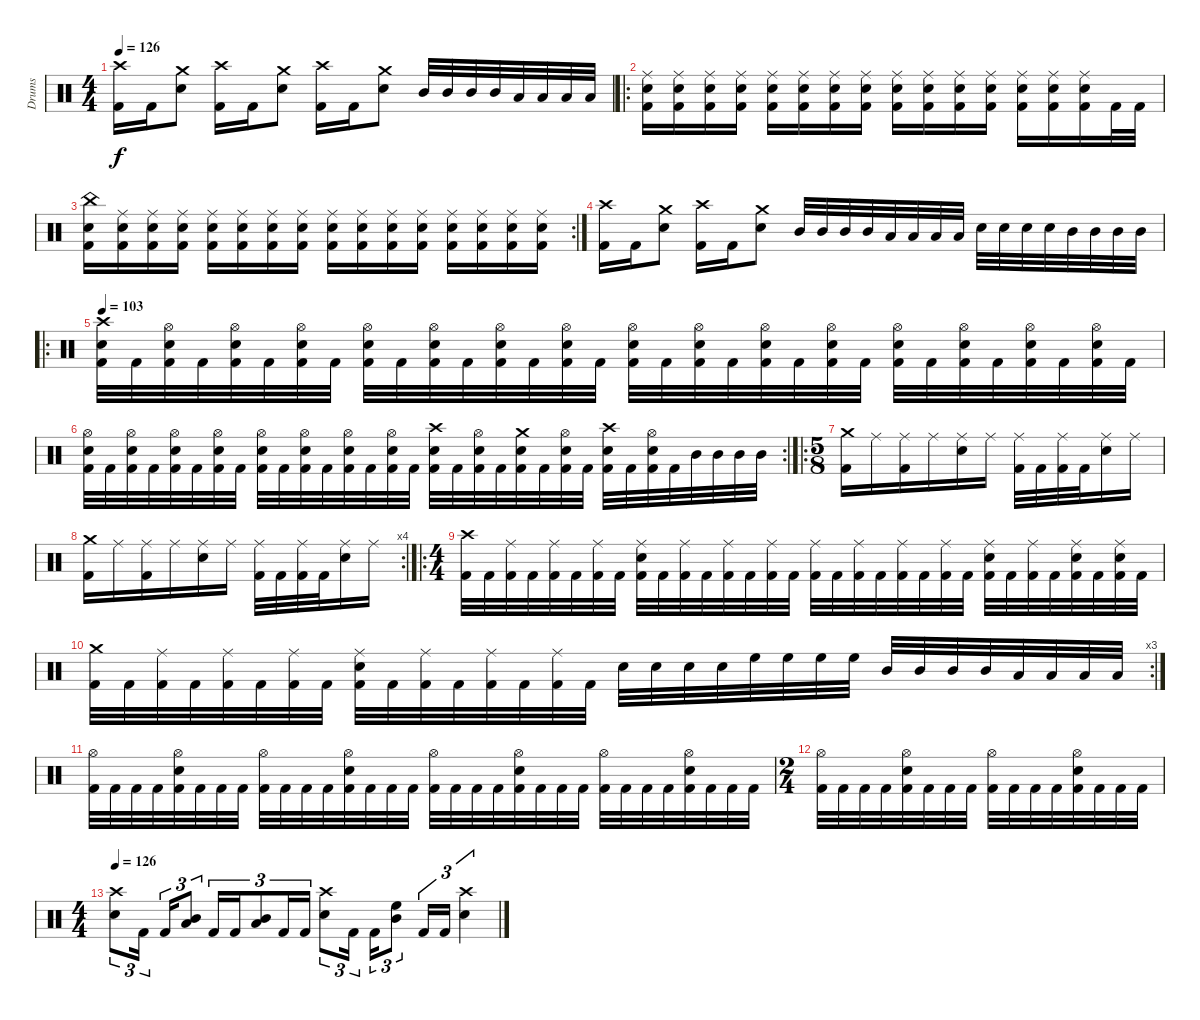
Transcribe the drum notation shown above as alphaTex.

\track ("Drums" "Drums") {instrument percussion}
\staff {score}
\articulation defaults
\ts (4 4)
\tempo 126
\clef neutral
\ks c
("Crash high (hit)" "Kick (hit) 2").16{dy f} "Kick (hit) 2".16 ("Crash medium (hit)" "Electric Snare (hit)").8 ("Crash high (hit)" "Kick (hit) 2").16 "Kick (hit) 2".16 ("Crash medium (hit)" "Electric Snare (hit)").8 ("Crash high (hit)" "Kick (hit) 2").16 "Kick (hit) 2".16 ("Crash medium (hit)" "Electric Snare (hit)").8 "Mid Tom (hit)".32 "Mid Tom (hit)".32 "Mid Tom (hit)".32 "Mid Tom (hit)".32 "Low Tom (hit)".32 "Low Tom (hit)".32 "Low Tom (hit)".32 "Low Tom (hit)".32 |
\ro
("Ride (middle)" "Electric Snare (hit)" "Kick (hit) 2").16 ("Ride (middle)" "Electric Snare (hit)" "Kick (hit) 2").16 ("Ride (middle)" "Electric Snare (hit)" "Kick (hit) 2").16 ("Ride (middle)" "Electric Snare (hit)" "Kick (hit) 2").16 ("Ride (middle)" "Electric Snare (hit)" "Kick (hit) 2").16 ("Ride (middle)" "Electric Snare (hit)" "Kick (hit) 2").16 ("Ride (middle)" "Electric Snare (hit)" "Kick (hit) 2").16 ("Ride (middle)" "Electric Snare (hit)" "Kick (hit) 2").16 ("Ride (middle)" "Electric Snare (hit)" "Kick (hit) 2").16 ("Ride (middle)" "Electric Snare (hit)" "Kick (hit) 2").16 ("Ride (middle)" "Electric Snare (hit)" "Kick (hit) 2").16 ("Ride (middle)" "Electric Snare (hit)" "Kick (hit) 2").16 ("Ride (middle)" "Electric Snare (hit)" "Kick (hit) 2").16 ("Ride (middle)" "Electric Snare (hit)" "Kick (hit) 2").16 ("Ride (middle)" "Electric Snare (hit)" "Kick (hit) 2").16 "Kick (hit) 2".32 "Kick (hit) 2".32 |
\rc 2
("China (hit)" "Electric Snare (hit)" "Kick (hit) 2").16 ("Ride (middle)" "Electric Snare (hit)" "Kick (hit) 2").16 ("Ride (middle)" "Electric Snare (hit)" "Kick (hit) 2").16 ("Ride (middle)" "Electric Snare (hit)" "Kick (hit) 2").16 ("Ride (middle)" "Electric Snare (hit)" "Kick (hit) 2").16 ("Ride (middle)" "Electric Snare (hit)" "Kick (hit) 2").16 ("Ride (middle)" "Electric Snare (hit)" "Kick (hit) 2").16 ("Ride (middle)" "Electric Snare (hit)" "Kick (hit) 2").16 ("Ride (middle)" "Electric Snare (hit)" "Kick (hit) 2").16 ("Ride (middle)" "Electric Snare (hit)" "Kick (hit) 2").16 ("Ride (middle)" "Electric Snare (hit)" "Kick (hit) 2").16 ("Ride (middle)" "Electric Snare (hit)" "Kick (hit) 2").16 ("Ride (middle)" "Electric Snare (hit)" "Kick (hit) 2").16 ("Ride (middle)" "Electric Snare (hit)" "Kick (hit) 2").16 ("Ride (middle)" "Electric Snare (hit)" "Kick (hit) 2").16 ("Ride (middle)" "Electric Snare (hit)" "Kick (hit) 2").16 |
("Crash high (hit)" "Kick (hit) 2").16 "Kick (hit) 2".16 ("Crash medium (hit)" "Electric Snare (hit)").8 ("Crash high (hit)" "Kick (hit) 2").16 "Kick (hit) 2".16 ("Crash medium (hit)" "Electric Snare (hit)").8 "Mid Tom (hit)".32 "Mid Tom (hit)".32 "Mid Tom (hit)".32 "Mid Tom (hit)".32 "Low Tom (hit)".32 "Low Tom (hit)".32 "Low Tom (hit)".32 "Low Tom (hit)".32 "Electric Snare (hit)".32 "Electric Snare (hit)".32 "Electric Snare (hit)".32 "Electric Snare (hit)".32 "Mid Tom (hit)".32 "Mid Tom (hit)".32 "Mid Tom (hit)".32 "Mid Tom (hit)".32 |
\ro
\tempo 103
("Crash high (hit)" "Electric Snare (hit)" "Kick (hit) 2").32 "Kick (hit) 2".32 ("Hi-Hat (open)" "Electric Snare (hit)" "Kick (hit) 2").32 "Kick (hit) 2".32 ("Hi-Hat (open)" "Electric Snare (hit)" "Kick (hit) 2").32 "Kick (hit) 2".32 ("Hi-Hat (open)" "Electric Snare (hit)" "Kick (hit) 2").32 "Kick (hit) 2".32 ("Hi-Hat (open)" "Electric Snare (hit)" "Kick (hit) 2").32 "Kick (hit) 2".32 ("Hi-Hat (open)" "Electric Snare (hit)" "Kick (hit) 2").32 "Kick (hit) 2".32 ("Hi-Hat (open)" "Electric Snare (hit)" "Kick (hit) 2").32 "Kick (hit) 2".32 ("Hi-Hat (open)" "Electric Snare (hit)" "Kick (hit) 2").32 "Kick (hit) 2".32 ("Hi-Hat (open)" "Electric Snare (hit)" "Kick (hit) 2").32 "Kick (hit) 2".32 ("Hi-Hat (open)" "Electric Snare (hit)" "Kick (hit) 2").32 "Kick (hit) 2".32 ("Hi-Hat (open)" "Electric Snare (hit)" "Kick (hit) 2").32 "Kick (hit) 2".32 ("Hi-Hat (open)" "Electric Snare (hit)" "Kick (hit) 2").32 "Kick (hit) 2".32 ("Hi-Hat (open)" "Electric Snare (hit)" "Kick (hit) 2").32 "Kick (hit) 2".32 ("Hi-Hat (open)" "Electric Snare (hit)" "Kick (hit) 2").32 "Kick (hit) 2".32 ("Hi-Hat (open)" "Electric Snare (hit)" "Kick (hit) 2").32 "Kick (hit) 2".32 ("Hi-Hat (open)" "Electric Snare (hit)" "Kick (hit) 2").32 "Kick (hit) 2".32 |
\rc 2
("Hi-Hat (open)" "Electric Snare (hit)" "Kick (hit) 2").32 "Kick (hit) 2".32 ("Hi-Hat (open)" "Electric Snare (hit)" "Kick (hit) 2").32 "Kick (hit) 2".32 ("Hi-Hat (open)" "Electric Snare (hit)" "Kick (hit) 2").32 "Kick (hit) 2".32 ("Hi-Hat (open)" "Electric Snare (hit)" "Kick (hit) 2").32 "Kick (hit) 2".32 ("Hi-Hat (open)" "Electric Snare (hit)" "Kick (hit) 2").32 "Kick (hit) 2".32 ("Hi-Hat (open)" "Electric Snare (hit)" "Kick (hit) 2").32 "Kick (hit) 2".32 ("Hi-Hat (open)" "Electric Snare (hit)" "Kick (hit) 2").32 "Kick (hit) 2".32 ("Hi-Hat (open)" "Electric Snare (hit)" "Kick (hit) 2").32 "Kick (hit) 2".32 ("Crash high (hit)" "Electric Snare (hit)" "Kick (hit) 2").32 "Kick (hit) 2".32 ("Hi-Hat (open)" "Electric Snare (hit)" "Kick (hit) 2").32 "Kick (hit) 2".32 ("Crash medium (hit)" "Electric Snare (hit)" "Kick (hit) 2").32 "Kick (hit) 2".32 ("Hi-Hat (open)" "Electric Snare (hit)" "Kick (hit) 2").32 "Kick (hit) 2".32 ("Crash high (hit)" "Electric Snare (hit)" "Kick (hit) 2").32 "Kick (hit) 2".32 ("Hi-Hat (open)" "Electric Snare (hit)" "Kick (hit) 2").32 "Kick (hit) 2".32 "Mid Tom (hit)".32 "Mid Tom (hit)".32 "Mid Tom (hit)".32 "Mid Tom (hit)".32 |
\ro
\ts (5 8)
("Crash medium (hit)" "Kick (hit) 2").16 "Ride (middle)".16 ("Ride (middle)" "Kick (hit) 2").16 "Ride (middle)".16 ("Ride (middle)" "Electric Snare (hit)").16 "Ride (middle)".16 ("Ride (middle)" "Kick (hit) 2").32 "Kick (hit) 2".32 ("Ride (middle)" "Kick (hit) 2").32 "Kick (hit) 2".32 ("Ride (middle)" "Electric Snare (hit)").16 "Ride (middle)".16 |
\rc 4
("Crash medium (hit)" "Kick (hit) 2").16 "Ride (middle)".16 ("Ride (middle)" "Kick (hit) 2").16 "Ride (middle)".16 ("Ride (middle)" "Electric Snare (hit)").16 "Ride (middle)".16 ("Ride (middle)" "Kick (hit) 2").32 "Kick (hit) 2".32 ("Ride (middle)" "Kick (hit) 2").32 "Kick (hit) 2".32 ("Ride (middle)" "Electric Snare (hit)").16 "Ride (middle)".16 |
\ro
\ts (4 4)
("Crash high (hit)" "Kick (hit) 2").32 "Kick (hit) 2".32 ("Ride (middle)" "Kick (hit) 2").32 "Kick (hit) 2".32 ("Ride (middle)" "Kick (hit) 2").32 "Kick (hit) 2".32 ("Ride (middle)" "Kick (hit) 2").32 "Kick (hit) 2".32 ("Ride (middle)" "Electric Snare (hit)" "Kick (hit) 2").32 "Kick (hit) 2".32 ("Ride (middle)" "Kick (hit) 2").32 "Kick (hit) 2".32 ("Ride (middle)" "Kick (hit) 2").32 "Kick (hit) 2".32 ("Ride (middle)" "Kick (hit) 2").32 "Kick (hit) 2".32 ("Ride (middle)" "Kick (hit) 2").32 "Kick (hit) 2".32 ("Ride (middle)" "Kick (hit) 2").32 "Kick (hit) 2".32 ("Ride (middle)" "Kick (hit) 2").32 "Kick (hit) 2".32 ("Ride (middle)" "Kick (hit) 2").32 "Kick (hit) 2".32 ("Ride (middle)" "Electric Snare (hit)" "Kick (hit) 2").32 "Kick (hit) 2".32 ("Ride (middle)" "Kick (hit) 2").32 "Kick (hit) 2".32 ("Ride (middle)" "Electric Snare (hit)" "Kick (hit) 2").32 "Kick (hit) 2".32 ("Ride (middle)" "Electric Snare (hit)" "Kick (hit) 2").32 "Kick (hit) 2".32 |
\rc 3
("Crash medium (hit)" "Kick (hit) 2").32 "Kick (hit) 2".32 ("Ride (middle)" "Kick (hit) 2").32 "Kick (hit) 2".32 ("Ride (middle)" "Kick (hit) 2").32 "Kick (hit) 2".32 ("Ride (middle)" "Kick (hit) 2").32 "Kick (hit) 2".32 ("Ride (middle)" "Electric Snare (hit)" "Kick (hit) 2").32 "Kick (hit) 2".32 ("Ride (middle)" "Kick (hit) 2").32 "Kick (hit) 2".32 ("Ride (middle)" "Kick (hit) 2").32 "Kick (hit) 2".32 ("Ride (middle)" "Kick (hit) 2").32 "Kick (hit) 2".32 "Electric Snare (hit)".32 "Electric Snare (hit)".32 "Electric Snare (hit)".32 "Electric Snare (hit)".32 "High Floor Tom (hit)".32 "High Floor Tom (hit)".32 "High Floor Tom (hit)".32 "High Floor Tom (hit)".32 "Mid Tom (hit)".32 "Mid Tom (hit)".32 "Mid Tom (hit)".32 "Mid Tom (hit)".32 "Low Tom (hit)".32 "Low Tom (hit)".32 "Low Tom (hit)".32 "Low Tom (hit)".32 |
("Hi-Hat (open)" "Kick (hit) 2").32 "Kick (hit) 2".32 "Kick (hit) 2".32 "Kick (hit) 2".32 ("Hi-Hat (open)" "Electric Snare (hit)" "Kick (hit) 2").32 "Kick (hit) 2".32 "Kick (hit) 2".32 "Kick (hit) 2".32 ("Hi-Hat (open)" "Kick (hit) 2").32 "Kick (hit) 2".32 "Kick (hit) 2".32 "Kick (hit) 2".32 ("Hi-Hat (open)" "Electric Snare (hit)" "Kick (hit) 2").32 "Kick (hit) 2".32 "Kick (hit) 2".32 "Kick (hit) 2".32 ("Hi-Hat (open)" "Kick (hit) 2").32 "Kick (hit) 2".32 "Kick (hit) 2".32 "Kick (hit) 2".32 ("Hi-Hat (open)" "Electric Snare (hit)" "Kick (hit) 2").32 "Kick (hit) 2".32 "Kick (hit) 2".32 "Kick (hit) 2".32 ("Hi-Hat (open)" "Kick (hit) 2").32 "Kick (hit) 2".32 "Kick (hit) 2".32 "Kick (hit) 2".32 ("Hi-Hat (open)" "Electric Snare (hit)" "Kick (hit) 2").32 "Kick (hit) 2".32 "Kick (hit) 2".32 "Kick (hit) 2".32 |
\ts (2 4)
("Hi-Hat (open)" "Kick (hit) 2").32 "Kick (hit) 2".32 "Kick (hit) 2".32 "Kick (hit) 2".32 ("Hi-Hat (open)" "Electric Snare (hit)" "Kick (hit) 2").32 "Kick (hit) 2".32 "Kick (hit) 2".32 "Kick (hit) 2".32 ("Hi-Hat (open)" "Kick (hit) 2").32 "Kick (hit) 2".32 "Kick (hit) 2".32 "Kick (hit) 2".32 ("Hi-Hat (open)" "Electric Snare (hit)" "Kick (hit) 2").32 "Kick (hit) 2".32 "Kick (hit) 2".32 "Kick (hit) 2".32 |
\ts (4 4)
\tempo 126
("Crash high (hit)" "Electric Snare (hit)").8{tu (3 2)} "Kick (hit) 2".16{tu (3 2)} "Kick (hit) 2".16{tu (3 2)} ("Mid Tom (hit)" "Low Tom (hit)").8{tu (3 2)} "Kick (hit) 2".16{tu (3 2)} "Kick (hit) 2".16{tu (3 2)} ("Low Tom (hit)" "Mid Tom (hit)").8{tu (3 2)} "Kick (hit) 2".16{tu (3 2)} "Kick (hit) 2".16{tu (3 2)} ("Crash high (hit)" "Electric Snare (hit)").8{tu (3 2)} "Kick (hit) 2".16{tu (3 2)} "Kick (hit) 2".16{tu (3 2)} ("High Floor Tom (hit)" "Mid Tom (hit)").8{tu (3 2)} "Kick (hit) 2".16{tu (3 2)} "Kick (hit) 2".16{tu (3 2)} ("Crash high (hit)" "Electric Snare (hit)").4{tu (3 2)}
